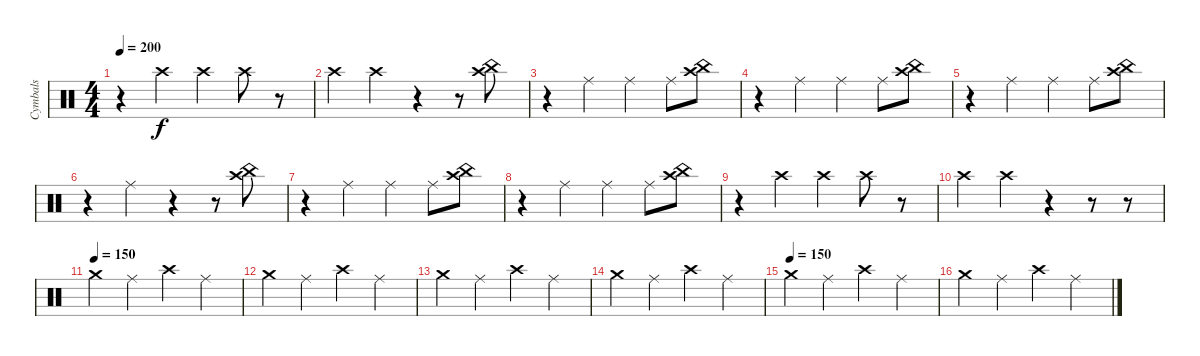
\track ("Cymbals" "Cymbals") {instrument percussion}
\staff {score}
\articulation defaults
\ts (4 4)
\tempo 200
\clef neutral
\ks c
r.4{dy f} "Crash high (hit)".4 "Crash high (hit)".4 "Crash high (hit)".8 r.8 |
"Crash high (hit)".4 "Crash high (hit)".4 r.4 r.8 ("Crash high (hit)" "China (hit)").8 |
r.4 "Ride (middle)".4 "Ride (middle)".4 "Ride (middle)".8 ("Crash high (hit)" "China (hit)").8 |
r.4 "Ride (middle)".4 "Ride (middle)".4 "Ride (middle)".8 ("Crash high (hit)" "China (hit)").8 |
r.4 "Ride (middle)".4 "Ride (middle)".4 "Ride (middle)".8 ("Crash high (hit)" "China (hit)").8 |
r.4 "Ride (middle)".4 r.4 r.8 ("Crash high (hit)" "China (hit)").8 |
r.4 "Ride (middle)".4 "Ride (middle)".4 "Ride (middle)".8 ("Crash high (hit)" "China (hit)").8 |
r.4 "Ride (middle)".4 "Ride (middle)".4 "Ride (middle)".8 ("Crash high (hit)" "China (hit)").8 |
r.4 "Crash high (hit)".4 "Crash high (hit)".4 "Crash high (hit)".8 r.8 |
"Crash high (hit)".4 "Crash high (hit)".4 r.4 r.8 r.8 |
\tempo (150)
"Crash medium (hit)".4 "Ride (middle)".4 "Crash high (hit)".4 "Ride (middle)".4 |
"Crash medium (hit)".4 "Ride (middle)".4 "Crash high (hit)".4 "Ride (middle)".4 |
"Crash medium (hit)".4 "Ride (middle)".4 "Crash high (hit)".4 "Ride (middle)".4 |
"Crash medium (hit)".4 "Ride (middle)".4 "Crash high (hit)".4 "Ride (middle)".4 |
\tempo (150)
"Crash medium (hit)".4 "Ride (middle)".4 "Crash high (hit)".4 "Ride (middle)".4 |
"Crash medium (hit)".4 "Ride (middle)".4 "Crash high (hit)".4 "Ride (middle)".4
